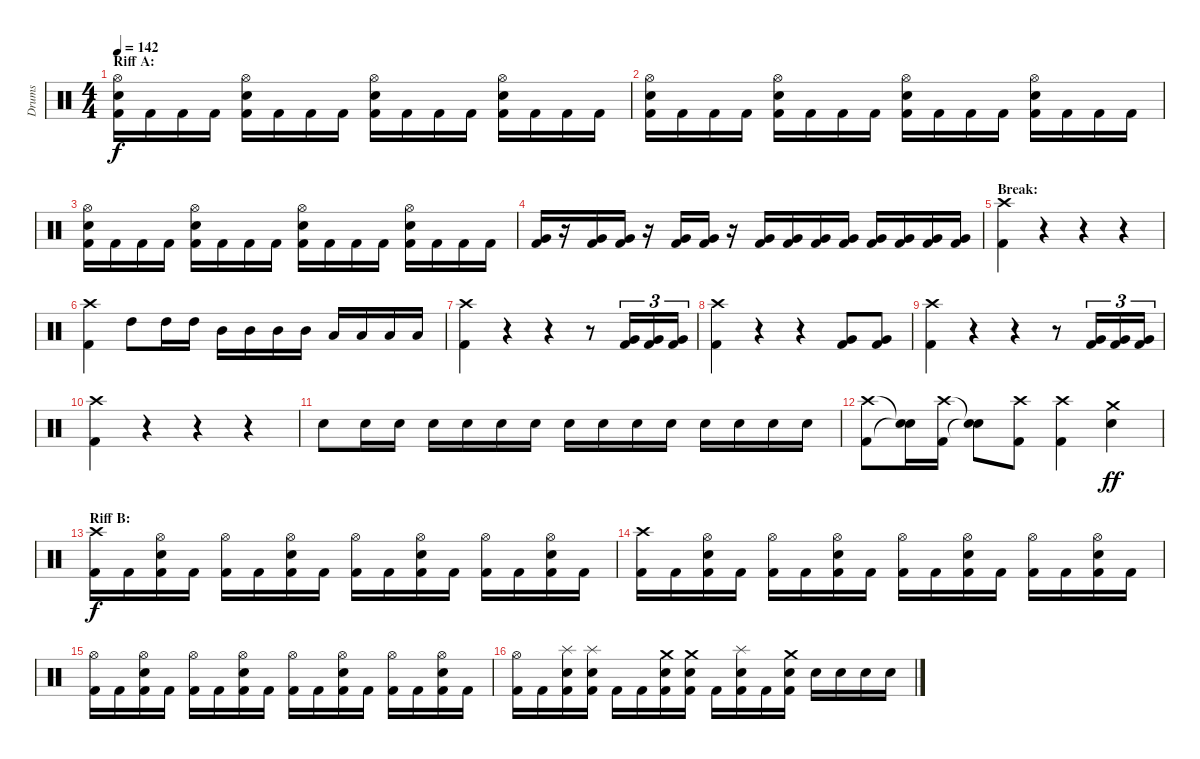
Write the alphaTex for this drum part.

\track ("Drums" "Drums") {instrument percussion}
\staff {score}
\articulation defaults
\ts (4 4)
\section ("" "Riff A:")
\tempo 142
\clef neutral
\ks c
("Hi-Hat (open)" "Electric Snare (hit)" "Kick (hit) 2").16{dy f} "Kick (hit) 2".16 "Kick (hit) 2".16 "Kick (hit) 2".16 ("Hi-Hat (open)" "Electric Snare (hit)" "Kick (hit) 2").16 "Kick (hit) 2".16 "Kick (hit) 2".16 "Kick (hit) 2".16 ("Hi-Hat (open)" "Electric Snare (hit)" "Kick (hit) 2").16 "Kick (hit) 2".16 "Kick (hit) 2".16 "Kick (hit) 2".16 ("Hi-Hat (open)" "Electric Snare (hit)" "Kick (hit) 2").16 "Kick (hit) 2".16 "Kick (hit) 2".16 "Kick (hit) 2".16 |
("Hi-Hat (open)" "Electric Snare (hit)" "Kick (hit) 2").16 "Kick (hit) 2".16 "Kick (hit) 2".16 "Kick (hit) 2".16 ("Hi-Hat (open)" "Electric Snare (hit)" "Kick (hit) 2").16 "Kick (hit) 2".16 "Kick (hit) 2".16 "Kick (hit) 2".16 ("Hi-Hat (open)" "Electric Snare (hit)" "Kick (hit) 2").16 "Kick (hit) 2".16 "Kick (hit) 2".16 "Kick (hit) 2".16 ("Hi-Hat (open)" "Electric Snare (hit)" "Kick (hit) 2").16 "Kick (hit) 2".16 "Kick (hit) 2".16 "Kick (hit) 2".16 |
("Hi-Hat (open)" "Electric Snare (hit)" "Kick (hit) 2").16 "Kick (hit) 2".16 "Kick (hit) 2".16 "Kick (hit) 2".16 ("Hi-Hat (open)" "Electric Snare (hit)" "Kick (hit) 2").16 "Kick (hit) 2".16 "Kick (hit) 2".16 "Kick (hit) 2".16 ("Hi-Hat (open)" "Electric Snare (hit)" "Kick (hit) 2").16 "Kick (hit) 2".16 "Kick (hit) 2".16 "Kick (hit) 2".16 ("Hi-Hat (open)" "Electric Snare (hit)" "Kick (hit) 2").16 "Kick (hit) 2".16 "Kick (hit) 2".16 "Kick (hit) 2".16 |
("Very Low Tom (hit)" "Kick (hit) 2").16 r.16 ("Very Low Tom (hit)" "Kick (hit) 2").16 ("Very Low Tom (hit)" "Kick (hit) 2").16 r.16 ("Very Low Tom (hit)" "Kick (hit) 2").16 ("Very Low Tom (hit)" "Kick (hit) 2").16 r.16 ("Very Low Tom (hit)" "Kick (hit) 2").16 ("Very Low Tom (hit)" "Kick (hit) 2").16 ("Very Low Tom (hit)" "Kick (hit) 2").16 ("Very Low Tom (hit)" "Kick (hit) 2").16 ("Very Low Tom (hit)" "Kick (hit) 2").16 ("Very Low Tom (hit)" "Kick (hit) 2").16 ("Very Low Tom (hit)" "Kick (hit) 2").16 ("Very Low Tom (hit)" "Kick (hit) 2").16 |
\section ("" "Break:")
("Crash high (hit)" "Kick (hit) 2").4 r.4 r.4 r.4 |
("Crash high (hit)" "Kick (hit) 2").4 "High Tom (hit)".8 "High Tom (hit)".16 "High Tom (hit)".16 "Mid Tom (hit)".16 "Mid Tom (hit)".16 "Mid Tom (hit)".16 "Mid Tom (hit)".16 "Low Tom (hit)".16 "Low Tom (hit)".16 "Low Tom (hit)".16 "Low Tom (hit)".16 |
("Crash high (hit)" "Kick (hit) 2").4 r.4 r.4 r.8 ("Very Low Tom (hit)" "Kick (hit) 2").16{tu (3 2)} ("Very Low Tom (hit)" "Kick (hit) 2").16{tu (3 2)} ("Very Low Tom (hit)" "Kick (hit) 2").16{tu (3 2)} |
("Crash high (hit)" "Kick (hit) 2").4 r.4 r.4 ("Very Low Tom (hit)" "Kick (hit) 2").8 ("Very Low Tom (hit)" "Kick (hit) 2").8 |
("Crash high (hit)" "Kick (hit) 2").4 r.4 r.4 r.8 ("Very Low Tom (hit)" "Kick (hit) 2").16{tu (3 2)} ("Very Low Tom (hit)" "Kick (hit) 2").16{tu (3 2)} ("Very Low Tom (hit)" "Kick (hit) 2").16{tu (3 2)} |
("Crash high (hit)" "Kick (hit) 2").4 r.4 r.4 r.4 |
"Electric Snare (hit)".8 "Electric Snare (hit)".16 "Electric Snare (hit)".16 "Electric Snare (hit)".16 "Electric Snare (hit)".16 "Electric Snare (hit)".16 "Electric Snare (hit)".16 "Electric Snare (hit)".16 "Electric Snare (hit)".16 "Electric Snare (hit)".16 "Electric Snare (hit)".16 "Electric Snare (hit)".16 "Electric Snare (hit)".16 "Electric Snare (hit)".16 "Electric Snare (hit)".16 |
("Crash high (hit)" "Kick (hit) 2").8 ("Snare (hit)"{t} "Snare (hit)"{t}).16 ("Crash high (hit)" "Kick (hit) 2").16 ("Snare (hit)"{t} "Snare (hit)"{t}).8 ("Crash high (hit)" "Kick (hit) 2").8 ("Crash high (hit)" "Kick (hit) 2").4 ("Crash medium (hit)" "Electric Snare (hit)").4{dy ff} |
\section ("" "Riff B:")
("Crash high (hit)" "Kick (hit) 2").16{dy f} "Kick (hit) 2".16 ("Hi-Hat (open)" "Electric Snare (hit)" "Kick (hit) 2").16 "Kick (hit) 2".16 ("Hi-Hat (open)" "Kick (hit) 2").16 "Kick (hit) 2".16 ("Hi-Hat (open)" "Electric Snare (hit)" "Kick (hit) 2").16 "Kick (hit) 2".16 ("Hi-Hat (open)" "Kick (hit) 2").16 "Kick (hit) 2".16 ("Hi-Hat (open)" "Electric Snare (hit)" "Kick (hit) 2").16 "Kick (hit) 2".16 ("Hi-Hat (open)" "Kick (hit) 2").16 "Kick (hit) 2".16 ("Hi-Hat (open)" "Electric Snare (hit)" "Kick (hit) 2").16 "Kick (hit) 2".16 |
("Crash high (hit)" "Kick (hit) 2").16 "Kick (hit) 2".16 ("Hi-Hat (open)" "Electric Snare (hit)" "Kick (hit) 2").16 "Kick (hit) 2".16 ("Hi-Hat (open)" "Kick (hit) 2").16 "Kick (hit) 2".16 ("Hi-Hat (open)" "Electric Snare (hit)" "Kick (hit) 2").16 "Kick (hit) 2".16 ("Hi-Hat (open)" "Kick (hit) 2").16 "Kick (hit) 2".16 ("Hi-Hat (open)" "Electric Snare (hit)" "Kick (hit) 2").16 "Kick (hit) 2".16 ("Hi-Hat (open)" "Kick (hit) 2").16 "Kick (hit) 2".16 ("Hi-Hat (open)" "Electric Snare (hit)" "Kick (hit) 2").16 "Kick (hit) 2".16 |
("Hi-Hat (open)" "Kick (hit) 2").16 "Kick (hit) 2".16 ("Hi-Hat (open)" "Electric Snare (hit)" "Kick (hit) 2").16 "Kick (hit) 2".16 ("Hi-Hat (open)" "Kick (hit) 2").16 "Kick (hit) 2".16 ("Hi-Hat (open)" "Electric Snare (hit)" "Kick (hit) 2").16 "Kick (hit) 2".16 ("Hi-Hat (open)" "Kick (hit) 2").16 "Kick (hit) 2".16 ("Hi-Hat (open)" "Electric Snare (hit)" "Kick (hit) 2").16 "Kick (hit) 2".16 ("Hi-Hat (open)" "Kick (hit) 2").16 "Kick (hit) 2".16 ("Hi-Hat (open)" "Electric Snare (hit)" "Kick (hit) 2").16 "Kick (hit) 2".16 |
("Hi-Hat (open)" "Kick (hit) 2").16 "Kick (hit) 2".16 ("Splash (hit)" "Electric Snare (hit)" "Kick (hit) 2").16 ("Splash (hit)" "Electric Snare (hit)" "Kick (hit) 2").16 "Kick (hit) 2".16 "Kick (hit) 2".16 ("Crash medium (hit)" "Electric Snare (hit)" "Kick (hit) 2").16 ("Crash medium (hit)" "Electric Snare (hit)" "Kick (hit) 2").16 "Kick (hit) 2".16 ("Splash (hit)" "Electric Snare (hit)" "Kick (hit) 2").16 "Kick (hit) 2".16 ("Crash medium (hit)" "Electric Snare (hit)" "Kick (hit) 2").16 "Electric Snare (hit)".16 "Electric Snare (hit)".16 "Electric Snare (hit)".16 "Electric Snare (hit)".16
